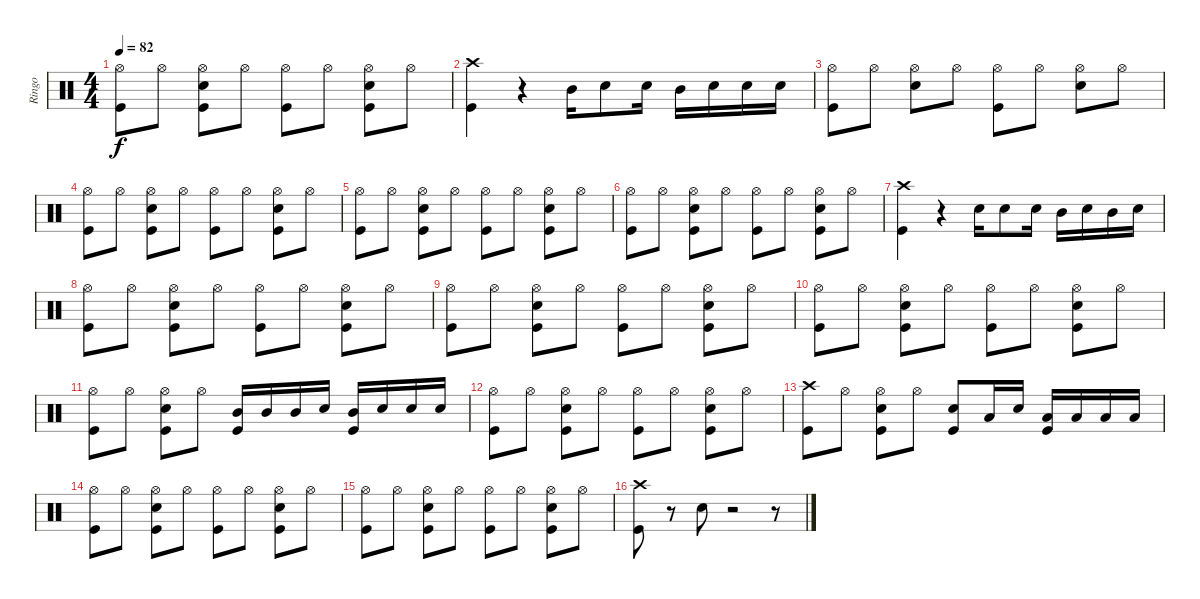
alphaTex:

\track ("Ringo" "Ringo") {instrument percussion}
\staff {score}
\articulation defaults
\ts (4 4)
\tempo 82
\clef neutral
\ks c
("Kick (hit)" "Hi-Hat (open)").8{dy f} "Hi-Hat (open)".8 ("Electric Snare (hit)" "Kick (hit)" "Hi-Hat (open)").8 "Hi-Hat (open)".8 ("Kick (hit)" "Hi-Hat (open)").8 "Hi-Hat (open)".8 ("Electric Snare (hit)" "Kick (hit)" "Hi-Hat (open)").8 "Hi-Hat (open)".8 |
("Crash high (hit)" "Kick (hit)").4 r.4 "Mid Tom (hit)".16 "Electric Snare (hit)".8 "Electric Snare (hit)".16 "Mid Tom (hit)".16 "Electric Snare (hit)".16 "Electric Snare (hit)".16 "Electric Snare (hit)".16 |
("Kick (hit)" "Hi-Hat (open)").8 "Hi-Hat (open)".8 ("Electric Snare (hit)" "Hi-Hat (open)").8 "Hi-Hat (open)".8 ("Kick (hit)" "Hi-Hat (open)").8 "Hi-Hat (open)".8 ("Electric Snare (hit)" "Hi-Hat (open)").8 "Hi-Hat (open)".8 |
("Hi-Hat (open)" "Kick (hit)").8 "Hi-Hat (open)".8 ("Electric Snare (hit)" "Hi-Hat (open)" "Kick (hit)").8 "Hi-Hat (open)".8 ("Hi-Hat (open)" "Kick (hit)").8 "Hi-Hat (open)".8 ("Hi-Hat (open)" "Electric Snare (hit)" "Kick (hit)").8 "Hi-Hat (open)".8 |
("Hi-Hat (open)" "Kick (hit)").8 "Hi-Hat (open)".8 ("Electric Snare (hit)" "Hi-Hat (open)" "Kick (hit)").8 "Hi-Hat (open)".8 ("Hi-Hat (open)" "Kick (hit)").8 "Hi-Hat (open)".8 ("Hi-Hat (open)" "Electric Snare (hit)" "Kick (hit)").8 "Hi-Hat (open)".8 |
("Hi-Hat (open)" "Kick (hit)").8 "Hi-Hat (open)".8 ("Electric Snare (hit)" "Hi-Hat (open)" "Kick (hit)").8 "Hi-Hat (open)".8 ("Hi-Hat (open)" "Kick (hit)").8 "Hi-Hat (open)".8 ("Hi-Hat (open)" "Electric Snare (hit)" "Kick (hit)").8 "Hi-Hat (open)".8 |
("Crash high (hit)" "Kick (hit)").4 r.4 "Electric Snare (hit)".16 "Electric Snare (hit)".8 "Electric Snare (hit)".16 "Mid Tom (hit)".16 "Electric Snare (hit)".16 "Mid Tom (hit)".16 "Electric Snare (hit)".16 |
("Kick (hit)" "Hi-Hat (open)").8 "Hi-Hat (open)".8 ("Electric Snare (hit)" "Kick (hit)" "Hi-Hat (open)").8 "Hi-Hat (open)".8 ("Kick (hit)" "Hi-Hat (open)").8 "Hi-Hat (open)".8 ("Electric Snare (hit)" "Kick (hit)" "Hi-Hat (open)").8 "Hi-Hat (open)".8 |
("Kick (hit)" "Hi-Hat (open)").8 "Hi-Hat (open)".8 ("Electric Snare (hit)" "Kick (hit)" "Hi-Hat (open)").8 "Hi-Hat (open)".8 ("Kick (hit)" "Hi-Hat (open)").8 "Hi-Hat (open)".8 ("Electric Snare (hit)" "Kick (hit)" "Hi-Hat (open)").8 "Hi-Hat (open)".8 |
("Kick (hit)" "Hi-Hat (open)").8 "Hi-Hat (open)".8 ("Electric Snare (hit)" "Kick (hit)" "Hi-Hat (open)").8 "Hi-Hat (open)".8 ("Kick (hit)" "Hi-Hat (open)").8 "Hi-Hat (open)".8 ("Electric Snare (hit)" "Kick (hit)" "Hi-Hat (open)").8 "Hi-Hat (open)".8 |
("Kick (hit)" "Hi-Hat (open)").8 "Hi-Hat (open)".8 ("Electric Snare (hit)" "Kick (hit)" "Hi-Hat (open)").8 "Hi-Hat (open)".8 ("Mid Tom (hit)" "Kick (hit)").16 "Mid Tom (hit)".16 "Mid Tom (hit)".16 "Electric Snare (hit)".16 ("Mid Tom (hit)" "Kick (hit)").16 "Electric Snare (hit)".16 "Electric Snare (hit)".16 "Electric Snare (hit)".16 |
("Kick (hit)" "Hi-Hat (open)").8 "Hi-Hat (open)".8 ("Electric Snare (hit)" "Kick (hit)" "Hi-Hat (open)").8 "Hi-Hat (open)".8 ("Kick (hit)" "Hi-Hat (open)").8 "Hi-Hat (open)".8 ("Electric Snare (hit)" "Kick (hit)" "Hi-Hat (open)").8 "Hi-Hat (open)".8 |
("Kick (hit)" "Crash high (hit)").8 "Hi-Hat (open)".8 ("Electric Snare (hit)" "Kick (hit)" "Hi-Hat (open)").8 "Hi-Hat (open)".8 ("Electric Snare (hit)" "Kick (hit)").8 "Low Floor Tom (hit)".16 "Electric Snare (hit)".16 ("Low Floor Tom (hit)" "Kick (hit)").16 "Low Floor Tom (hit)".16 "Low Floor Tom (hit)".16 "Low Floor Tom (hit)".16 |
("Kick (hit)" "Hi-Hat (open)").8 "Hi-Hat (open)".8 ("Electric Snare (hit)" "Kick (hit)" "Hi-Hat (open)").8 "Hi-Hat (open)".8 ("Kick (hit)" "Hi-Hat (open)").8 "Hi-Hat (open)".8 ("Electric Snare (hit)" "Kick (hit)" "Hi-Hat (open)").8 "Hi-Hat (open)".8 |
("Kick (hit)" "Hi-Hat (open)").8 "Hi-Hat (open)".8 ("Electric Snare (hit)" "Kick (hit)" "Hi-Hat (open)").8 "Hi-Hat (open)".8 ("Kick (hit)" "Hi-Hat (open)").8 "Hi-Hat (open)".8 ("Electric Snare (hit)" "Kick (hit)" "Hi-Hat (open)").8 "Hi-Hat (open)".8 |
("Kick (hit)" "Crash high (hit)").8 r.8 "Electric Snare (hit)".8 r.2 r.8
